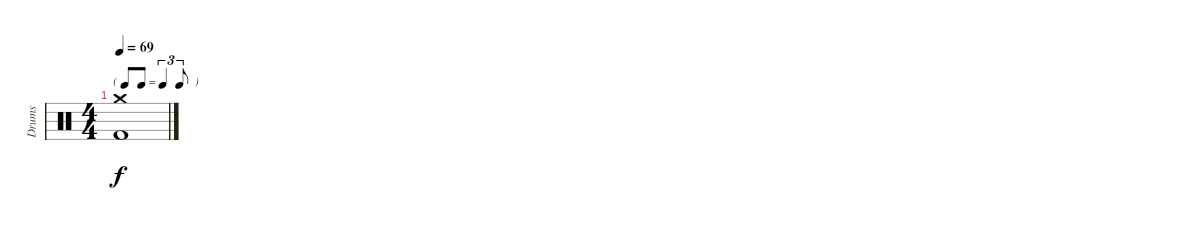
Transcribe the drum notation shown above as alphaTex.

\track ("Drums" "Drums") {instrument percussion}
\staff {score}
\articulation defaults
\ts (4 4)
\tf triplet8th
\tempo 69
\clef neutral
\ks c
("Crash medium (hit)" "Kick (hit) 2").1{dy f}
